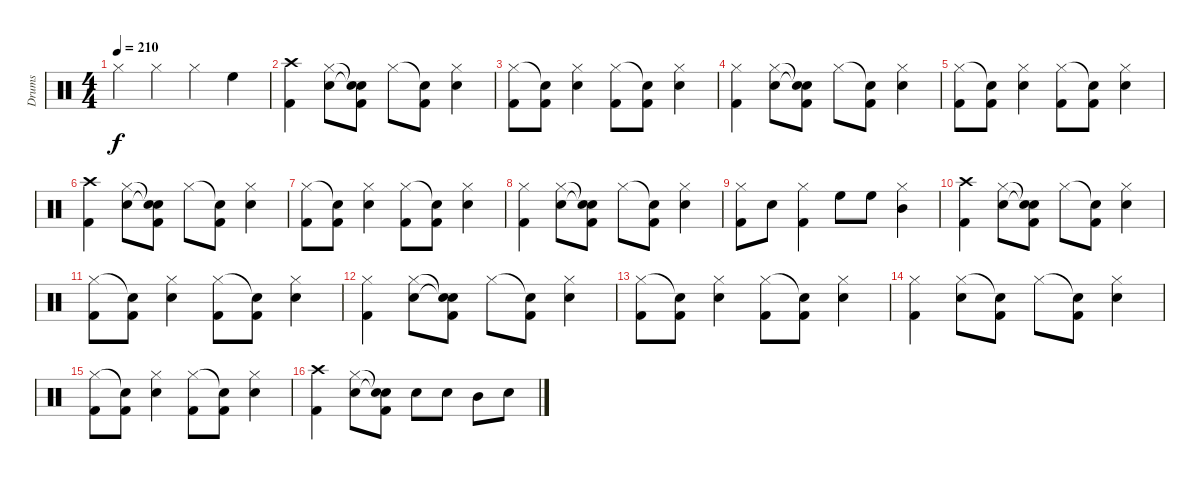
\track ("Drums" "Drums") {instrument percussion}
\staff {score}
\articulation defaults
\ts (4 4)
\tempo 210
\clef neutral
\ks c "Hi-Hat (closed)".4{dy f} "Hi-Hat (closed)".4 "Hi-Hat (closed)".4 "High Floor Tom (hit)".4
|
("Crash high (hit)" "Kick (hit) 2").4 ("Hi-Hat (closed)" "Snare (hit) 2").8 ("Snare (hit)"{t} "Snare (hit)"{t} "Kick (hit) 2").8 "Hi-Hat (closed)".8 ("Snare (hit)"{t} "Kick (hit) 2").8 ("Hi-Hat (closed)" "Snare (hit) 2").4 |
("Hi-Hat (closed)" "Kick (hit) 2").8 ("Snare (hit)"{t} "Kick (hit) 2").8 ("Hi-Hat (closed)" "Snare (hit) 2").4 ("Hi-Hat (closed)" "Kick (hit) 2").8 ("Snare (hit)"{t} "Kick (hit) 2").8 ("Hi-Hat (closed)" "Snare (hit) 2").4 |
("Hi-Hat (closed)" "Kick (hit) 2").4 ("Hi-Hat (closed)" "Snare (hit) 2").8 ("Snare (hit)"{t} "Snare (hit)"{t} "Kick (hit) 2").8 "Hi-Hat (closed)".8 ("Snare (hit)"{t} "Kick (hit) 2").8 ("Hi-Hat (closed)" "Snare (hit) 2").4 |
("Hi-Hat (closed)" "Kick (hit) 2").8 ("Snare (hit)"{t} "Kick (hit) 2").8 ("Hi-Hat (closed)" "Snare (hit) 2").4 ("Hi-Hat (closed)" "Kick (hit) 2").8 ("Snare (hit)"{t} "Kick (hit) 2").8 ("Hi-Hat (closed)" "Snare (hit) 2").4 |
("Crash high (hit)" "Kick (hit) 2").4 ("Hi-Hat (closed)" "Snare (hit) 2").8 ("Snare (hit)"{t} "Snare (hit)"{t} "Kick (hit) 2").8 "Hi-Hat (closed)".8 ("Snare (hit)"{t} "Kick (hit) 2").8 ("Hi-Hat (closed)" "Snare (hit) 2").4 |
("Hi-Hat (closed)" "Kick (hit) 2").8 ("Snare (hit)"{t} "Kick (hit) 2").8 ("Hi-Hat (closed)" "Snare (hit) 2").4 ("Hi-Hat (closed)" "Kick (hit) 2").8 ("Snare (hit)"{t} "Kick (hit) 2").8 ("Hi-Hat (closed)" "Snare (hit) 2").4 |
("Hi-Hat (closed)" "Kick (hit) 2").4 ("Hi-Hat (closed)" "Snare (hit) 2").8 ("Snare (hit)"{t} "Snare (hit)"{t} "Kick (hit) 2").8 "Hi-Hat (closed)".8 ("Snare (hit)"{t} "Kick (hit) 2").8 ("Hi-Hat (closed)" "Snare (hit) 2").4 |
("Hi-Hat (closed)" "Kick (hit) 2").8 "Snare (hit) 2".8 ("Hi-Hat (closed)" "Kick (hit) 2").4 "High Floor Tom (hit)".8 "High Floor Tom (hit)".8 ("Hi-Hat (closed)" "Mid Tom (hit)").4 |
("Crash high (hit)" "Kick (hit) 2").4 ("Hi-Hat (closed)" "Snare (hit) 2").8 ("Snare (hit)"{t} "Snare (hit)"{t} "Kick (hit) 2").8 "Hi-Hat (closed)".8 ("Snare (hit)"{t} "Kick (hit) 2").8 ("Hi-Hat (closed)" "Snare (hit) 2").4 |
("Hi-Hat (closed)" "Kick (hit) 2").8 ("Snare (hit)"{t} "Kick (hit) 2").8 ("Hi-Hat (closed)" "Snare (hit) 2").4 ("Hi-Hat (closed)" "Kick (hit) 2").8 ("Snare (hit)"{t} "Kick (hit) 2").8 ("Hi-Hat (closed)" "Snare (hit) 2").4 |
("Hi-Hat (closed)" "Kick (hit) 2").4 ("Hi-Hat (closed)" "Snare (hit) 2").8 ("Snare (hit)"{t} "Snare (hit)"{t} "Kick (hit) 2").8 "Hi-Hat (closed)".8 ("Snare (hit)"{t} "Kick (hit) 2").8 ("Hi-Hat (closed)" "Snare (hit) 2").4 |
("Hi-Hat (closed)" "Kick (hit) 2").8 ("Snare (hit)"{t} "Kick (hit) 2").8 ("Hi-Hat (closed)" "Snare (hit) 2").4 ("Hi-Hat (closed)" "Kick (hit) 2").8 ("Snare (hit)"{t} "Kick (hit) 2").8 ("Hi-Hat (closed)" "Snare (hit) 2").4 |
("Hi-Hat (closed)" "Kick (hit) 2").4 ("Hi-Hat (closed)" "Snare (hit) 2").8 ("Snare (hit)"{t} "Kick (hit) 2").8 "Hi-Hat (closed)".8 ("Snare (hit)"{t} "Kick (hit) 2").8 ("Hi-Hat (closed)" "Snare (hit) 2").4 |
("Hi-Hat (closed)" "Kick (hit) 2").8 ("Snare (hit)"{t} "Kick (hit) 2").8 ("Hi-Hat (closed)" "Snare (hit) 2").4 ("Hi-Hat (closed)" "Kick (hit) 2").8 ("Snare (hit)"{t} "Kick (hit) 2").8 ("Hi-Hat (closed)" "Snare (hit) 2").4 |
("Crash high (hit)" "Kick (hit) 2").4 ("Hi-Hat (closed)" "Snare (hit) 2").8 ("Snare (hit)"{t} "Snare (hit)"{t} "Kick (hit) 2").8 "Snare (hit) 2".8 "Snare (hit) 2".8 "Mid Tom (hit)".8 "Snare (hit) 2".8
